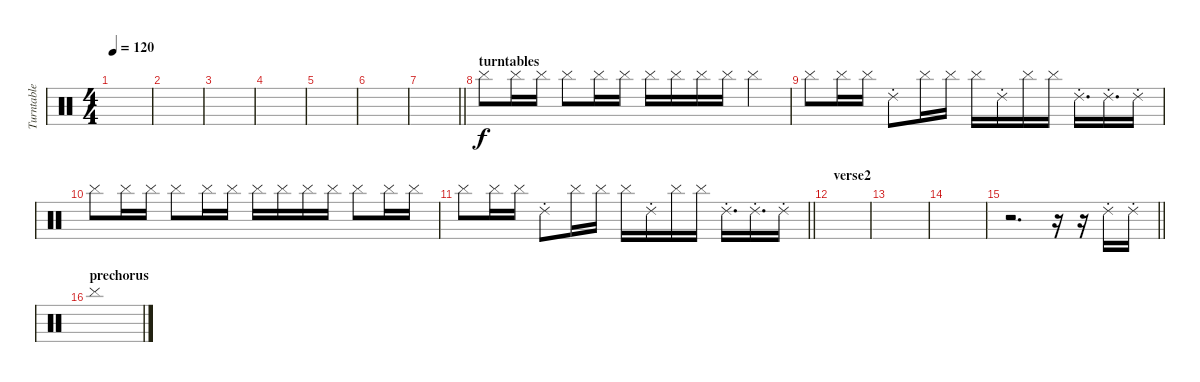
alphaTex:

\track ("Turntable" "Turntable") {instrument percussion}
\staff {score}
\articulation defaults
\ts (4 4)
\tempo 120
\clef neutral
\ks c
|
|
|
|
|
|
\barLineRight lightlight
|
\section ("" "turntables")
"Cymbal (hit)".8{dy f volume 16} "Cymbal (hit)".16 "Cymbal (hit)".16 "Cymbal (hit)".8 "Cymbal (hit)".16 "Cymbal (hit)".16 "Cymbal (hit)".16 "Cymbal (hit)".16 "Cymbal (hit)".16 "Cymbal (hit)".16 "Cymbal (hit)".4 |
"Cymbal (hit)".8 "Cymbal (hit)".16 "Cymbal (hit)".16 "Ride (choke) 2".8 "Cymbal (hit)".16 "Cymbal (hit)".16 "Cymbal (hit)".16 "Ride (choke) 2".16 "Cymbal (hit)".16 "Cymbal (hit)".16 "Ride (choke) 2".16{d} "Ride (choke) 2".16{d} "Ride (choke) 2".16 |
"Cymbal (hit)".8 "Cymbal (hit)".16 "Cymbal (hit)".16 "Cymbal (hit)".8 "Cymbal (hit)".16 "Cymbal (hit)".16 "Cymbal (hit)".16 "Cymbal (hit)".16 "Cymbal (hit)".16 "Cymbal (hit)".16 "Cymbal (hit)".8 "Cymbal (hit)".16 "Cymbal (hit)".16 |
\barLineRight lightlight "Cymbal (hit)".8 "Cymbal (hit)".16 "Cymbal (hit)".16 "Ride (choke) 2".8 "Cymbal (hit)".16 "Cymbal (hit)".16 "Cymbal (hit)".16 "Ride (choke) 2".16 "Cymbal (hit)".16 "Cymbal (hit)".16 "Ride (choke) 2".16{d} "Ride (choke) 2".16{d} "Ride (choke) 2".16
|
\section ("" "verse2")
|
|
|
\barLineRight lightlight
r.2{d} r.16 r.16 "Ride (choke) 2".16 "Ride (choke) 2".16 |
\section ("" "prechorus")
"Cymbal (hit)".1
